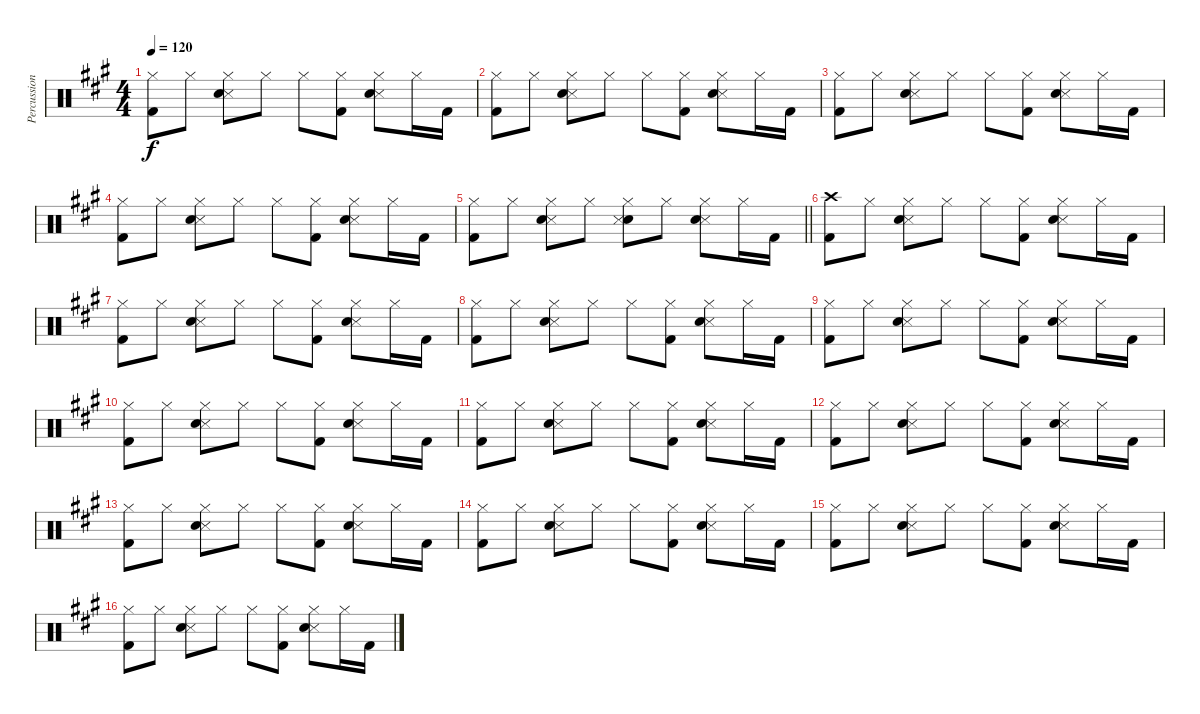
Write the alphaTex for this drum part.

\track ("Percussion" "Percussion") {instrument percussion}
\staff {score}
\articulation defaults
\ts (4 4)
\tempo 120
\clef neutral
\ks a
("Hi-Hat (closed)" "Kick (hit) 2").8{dy f} "Hi-Hat (closed)".8 ("Hi-Hat (closed)" "Snare (side stick) 3" "Electric Snare (hit)").8 "Hi-Hat (closed)".8 "Hi-Hat (closed)".8 ("Hi-Hat (closed)" "Kick (hit) 2").8 ("Hi-Hat (closed)" "Snare (side stick) 3" "Electric Snare (hit)").8 "Hi-Hat (closed)".16 "Kick (hit) 2".16 |
("Hi-Hat (closed)" "Kick (hit) 2").8 "Hi-Hat (closed)".8 ("Hi-Hat (closed)" "Snare (side stick) 3" "Electric Snare (hit)").8 "Hi-Hat (closed)".8 "Hi-Hat (closed)".8 ("Hi-Hat (closed)" "Kick (hit) 2").8 ("Hi-Hat (closed)" "Snare (side stick) 3" "Electric Snare (hit)").8 "Hi-Hat (closed)".16 "Kick (hit) 2".16 |
("Hi-Hat (closed)" "Kick (hit) 2").8 "Hi-Hat (closed)".8 ("Hi-Hat (closed)" "Snare (side stick) 3" "Electric Snare (hit)").8 "Hi-Hat (closed)".8 "Hi-Hat (closed)".8 ("Hi-Hat (closed)" "Kick (hit) 2").8 ("Hi-Hat (closed)" "Snare (side stick) 3" "Electric Snare (hit)").8 "Hi-Hat (closed)".16 "Kick (hit) 2".16 |
("Hi-Hat (closed)" "Kick (hit) 2").8 "Hi-Hat (closed)".8 ("Hi-Hat (closed)" "Snare (side stick) 3" "Electric Snare (hit)").8 "Hi-Hat (closed)".8 "Hi-Hat (closed)".8 ("Hi-Hat (closed)" "Kick (hit) 2").8 ("Hi-Hat (closed)" "Snare (side stick) 3" "Electric Snare (hit)").8 "Hi-Hat (closed)".16 "Kick (hit) 2".16 |
\barLineRight lightlight
("Hi-Hat (closed)" "Kick (hit) 2").8 "Hi-Hat (closed)".8 ("Hi-Hat (closed)" "Snare (side stick) 3" "Electric Snare (hit)").8 "Hi-Hat (closed)".8 ("Hi-Hat (closed)" "Electric Snare (hit)" "Snare (side stick) 3").8 "Hi-Hat (closed)".8 ("Hi-Hat (closed)" "Snare (side stick) 3" "Electric Snare (hit)").8 "Hi-Hat (closed)".16 "Kick (hit) 2".16 |
("Crash high (hit)" "Kick (hit) 2").8 "Hi-Hat (closed)".8 ("Hi-Hat (closed)" "Snare (side stick) 3" "Electric Snare (hit)").8 "Hi-Hat (closed)".8 "Hi-Hat (closed)".8 ("Hi-Hat (closed)" "Kick (hit) 2").8 ("Hi-Hat (closed)" "Snare (side stick) 3" "Electric Snare (hit)").8 "Hi-Hat (closed)".16 "Kick (hit) 2".16 |
("Hi-Hat (closed)" "Kick (hit) 2").8 "Hi-Hat (closed)".8 ("Hi-Hat (closed)" "Snare (side stick) 3" "Electric Snare (hit)").8 "Hi-Hat (closed)".8 "Hi-Hat (closed)".8 ("Hi-Hat (closed)" "Kick (hit) 2").8 ("Hi-Hat (closed)" "Snare (side stick) 3" "Electric Snare (hit)").8 "Hi-Hat (closed)".16 "Kick (hit) 2".16 |
("Hi-Hat (closed)" "Kick (hit) 2").8 "Hi-Hat (closed)".8 ("Hi-Hat (closed)" "Snare (side stick) 3" "Electric Snare (hit)").8 "Hi-Hat (closed)".8 "Hi-Hat (closed)".8 ("Hi-Hat (closed)" "Kick (hit) 2").8 ("Hi-Hat (closed)" "Snare (side stick) 3" "Electric Snare (hit)").8 "Hi-Hat (closed)".16 "Kick (hit) 2".16 |
("Hi-Hat (closed)" "Kick (hit) 2").8 "Hi-Hat (closed)".8 ("Hi-Hat (closed)" "Snare (side stick) 3" "Electric Snare (hit)").8 "Hi-Hat (closed)".8 "Hi-Hat (closed)".8 ("Hi-Hat (closed)" "Kick (hit) 2").8 ("Hi-Hat (closed)" "Snare (side stick) 3" "Electric Snare (hit)").8 "Hi-Hat (closed)".16 "Kick (hit) 2".16 |
("Hi-Hat (closed)" "Kick (hit) 2").8 "Hi-Hat (closed)".8 ("Hi-Hat (closed)" "Snare (side stick) 3" "Electric Snare (hit)").8 "Hi-Hat (closed)".8 "Hi-Hat (closed)".8 ("Hi-Hat (closed)" "Kick (hit) 2").8 ("Hi-Hat (closed)" "Snare (side stick) 3" "Electric Snare (hit)").8 "Hi-Hat (closed)".16 "Kick (hit) 2".16 |
("Hi-Hat (closed)" "Kick (hit) 2").8 "Hi-Hat (closed)".8 ("Hi-Hat (closed)" "Snare (side stick) 3" "Electric Snare (hit)").8 "Hi-Hat (closed)".8 "Hi-Hat (closed)".8 ("Hi-Hat (closed)" "Kick (hit) 2").8 ("Hi-Hat (closed)" "Snare (side stick) 3" "Electric Snare (hit)").8 "Hi-Hat (closed)".16 "Kick (hit) 2".16 |
("Hi-Hat (closed)" "Kick (hit) 2").8 "Hi-Hat (closed)".8 ("Hi-Hat (closed)" "Snare (side stick) 3" "Electric Snare (hit)").8 "Hi-Hat (closed)".8 "Hi-Hat (closed)".8 ("Hi-Hat (closed)" "Kick (hit) 2").8 ("Hi-Hat (closed)" "Snare (side stick) 3" "Electric Snare (hit)").8 "Hi-Hat (closed)".16 "Kick (hit) 2".16 |
("Hi-Hat (closed)" "Kick (hit) 2").8 "Hi-Hat (closed)".8 ("Hi-Hat (closed)" "Snare (side stick) 3" "Electric Snare (hit)").8 "Hi-Hat (closed)".8 "Hi-Hat (closed)".8 ("Hi-Hat (closed)" "Kick (hit) 2").8 ("Hi-Hat (closed)" "Snare (side stick) 3" "Electric Snare (hit)").8 "Hi-Hat (closed)".16 "Kick (hit) 2".16 |
("Hi-Hat (closed)" "Kick (hit) 2").8 "Hi-Hat (closed)".8 ("Hi-Hat (closed)" "Snare (side stick) 3" "Electric Snare (hit)").8 "Hi-Hat (closed)".8 "Hi-Hat (closed)".8 ("Hi-Hat (closed)" "Kick (hit) 2").8 ("Hi-Hat (closed)" "Snare (side stick) 3" "Electric Snare (hit)").8 "Hi-Hat (closed)".16 "Kick (hit) 2".16 |
("Hi-Hat (closed)" "Kick (hit) 2").8 "Hi-Hat (closed)".8 ("Hi-Hat (closed)" "Snare (side stick) 3" "Electric Snare (hit)").8 "Hi-Hat (closed)".8 "Hi-Hat (closed)".8 ("Hi-Hat (closed)" "Kick (hit) 2").8 ("Hi-Hat (closed)" "Snare (side stick) 3" "Electric Snare (hit)").8 "Hi-Hat (closed)".16 "Kick (hit) 2".16 |
("Hi-Hat (closed)" "Kick (hit) 2").8 "Hi-Hat (closed)".8 ("Hi-Hat (closed)" "Snare (side stick) 3" "Electric Snare (hit)").8 "Hi-Hat (closed)".8 "Hi-Hat (closed)".8 ("Hi-Hat (closed)" "Kick (hit) 2").8 ("Hi-Hat (closed)" "Snare (side stick) 3" "Electric Snare (hit)").8 "Hi-Hat (closed)".16 "Kick (hit) 2".16
